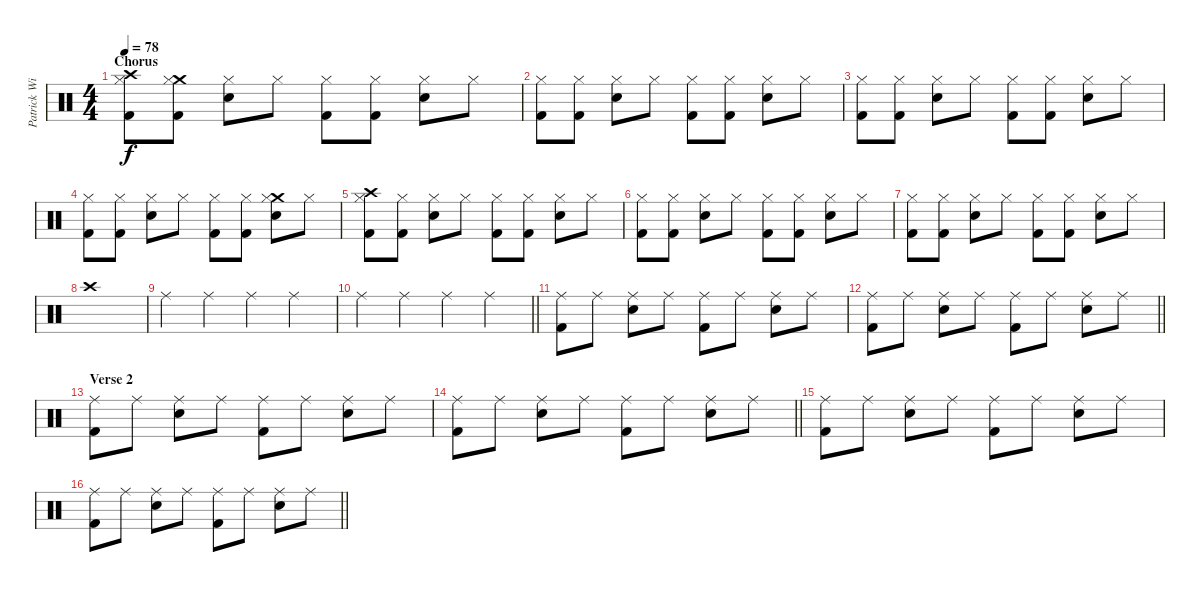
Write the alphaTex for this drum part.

\track ("Patrick Wilson" "Patrick Wi") {instrument percussion}
\staff {score}
\articulation defaults
\ts (4 4)
\section ("" "Chorus")
\tempo 78
\clef neutral
\ks c
("Crash high (hit)" "Kick (hit) 2" "Hi-Hat (closed)").8{dy f} ("Crash medium (hit)" "Kick (hit) 2" "Hi-Hat (closed)").8 ("Snare (hit) 2" "Hi-Hat (closed)").8 "Hi-Hat (closed)".8 ("Kick (hit) 2" "Hi-Hat (closed)").8 ("Kick (hit) 2" "Hi-Hat (closed)").8 ("Snare (hit) 2" "Hi-Hat (closed)").8 "Hi-Hat (closed)".8 |
("Kick (hit) 2" "Hi-Hat (closed)").8 ("Kick (hit) 2" "Hi-Hat (closed)").8 ("Snare (hit) 2" "Hi-Hat (closed)").8 "Hi-Hat (closed)".8 ("Kick (hit) 2" "Hi-Hat (closed)").8 ("Kick (hit) 2" "Hi-Hat (closed)").8 ("Snare (hit) 2" "Hi-Hat (closed)").8 "Hi-Hat (closed)".8 |
("Kick (hit) 2" "Hi-Hat (closed)").8 ("Kick (hit) 2" "Hi-Hat (closed)").8 ("Snare (hit) 2" "Hi-Hat (closed)").8 "Hi-Hat (closed)".8 ("Kick (hit) 2" "Hi-Hat (closed)").8 ("Kick (hit) 2" "Hi-Hat (closed)").8 ("Snare (hit) 2" "Hi-Hat (closed)").8 "Hi-Hat (closed)".8 |
("Kick (hit) 2" "Hi-Hat (closed)").8 ("Kick (hit) 2" "Hi-Hat (closed)").8 ("Snare (hit) 2" "Hi-Hat (closed)").8 "Hi-Hat (closed)".8 ("Kick (hit) 2" "Hi-Hat (closed)").8 ("Kick (hit) 2" "Hi-Hat (closed)").8 ("Crash medium (hit)" "Snare (hit) 2" "Hi-Hat (closed)").8 "Hi-Hat (closed)".8 |
("Crash high (hit)" "Kick (hit) 2" "Hi-Hat (closed)").8 ("Kick (hit) 2" "Hi-Hat (closed)").8 ("Snare (hit) 2" "Hi-Hat (closed)").8 "Hi-Hat (closed)".8 ("Kick (hit) 2" "Hi-Hat (closed)").8 ("Kick (hit) 2" "Hi-Hat (closed)").8 ("Snare (hit) 2" "Hi-Hat (closed)").8 "Hi-Hat (closed)".8 |
("Kick (hit) 2" "Hi-Hat (closed)").8 ("Kick (hit) 2" "Hi-Hat (closed)").8 ("Snare (hit) 2" "Hi-Hat (closed)").8 "Hi-Hat (closed)".8 ("Kick (hit) 2" "Hi-Hat (closed)").8 ("Kick (hit) 2" "Hi-Hat (closed)").8 ("Snare (hit) 2" "Hi-Hat (closed)").8 "Hi-Hat (closed)".8 |
("Kick (hit) 2" "Hi-Hat (closed)").8 ("Kick (hit) 2" "Hi-Hat (closed)").8 ("Snare (hit) 2" "Hi-Hat (closed)").8 "Hi-Hat (closed)".8 ("Kick (hit) 2" "Hi-Hat (closed)").8 ("Kick (hit) 2" "Hi-Hat (closed)").8 ("Snare (hit) 2" "Hi-Hat (closed)").8 "Hi-Hat (closed)".8 |
"Crash high (hit)".1 |
"Ride (middle)".4 "Ride (middle)".4 "Ride (middle)".4 "Ride (middle)".4 |
\barLineRight lightlight "Ride (middle)".4 "Ride (middle)".4 "Ride (middle)".4 "Ride (middle)".4
|
("Ride (middle)" "Kick (hit) 2").8 "Ride (middle)".8 ("Ride (middle)" "Snare (hit) 2").8 "Ride (middle)".8 ("Ride (middle)" "Kick (hit) 2").8 "Ride (middle)".8 ("Ride (middle)" "Snare (hit) 2").8 "Ride (middle)".8 |
\barLineRight lightlight
("Ride (middle)" "Kick (hit) 2").8 "Ride (middle)".8 ("Ride (middle)" "Snare (hit) 2").8 "Ride (middle)".8 ("Ride (middle)" "Kick (hit) 2").8 "Ride (middle)".8 ("Ride (middle)" "Snare (hit) 2").8 "Ride (middle)".8 |
\section ("" "Verse 2")
("Ride (middle)" "Kick (hit) 2").8 "Ride (middle)".8 ("Ride (middle)" "Snare (hit) 2").8 "Ride (middle)".8 ("Ride (middle)" "Kick (hit) 2").8 "Ride (middle)".8 ("Ride (middle)" "Snare (hit) 2").8 "Ride (middle)".8 |
\barLineRight lightlight
("Ride (middle)" "Kick (hit) 2").8 "Ride (middle)".8 ("Ride (middle)" "Snare (hit) 2").8 "Ride (middle)".8 ("Ride (middle)" "Kick (hit) 2").8 "Ride (middle)".8 ("Ride (middle)" "Snare (hit) 2").8 "Ride (middle)".8 |
("Ride (middle)" "Kick (hit) 2").8 "Ride (middle)".8 ("Ride (middle)" "Snare (hit) 2").8 "Ride (middle)".8 ("Ride (middle)" "Kick (hit) 2").8 "Ride (middle)".8 ("Ride (middle)" "Snare (hit) 2").8 "Ride (middle)".8 |
\barLineRight lightlight
("Ride (middle)" "Kick (hit) 2").8 "Ride (middle)".8 ("Ride (middle)" "Snare (hit) 2").8 "Ride (middle)".8 ("Ride (middle)" "Kick (hit) 2").8 "Ride (middle)".8 ("Ride (middle)" "Snare (hit) 2").8 "Ride (middle)".8
